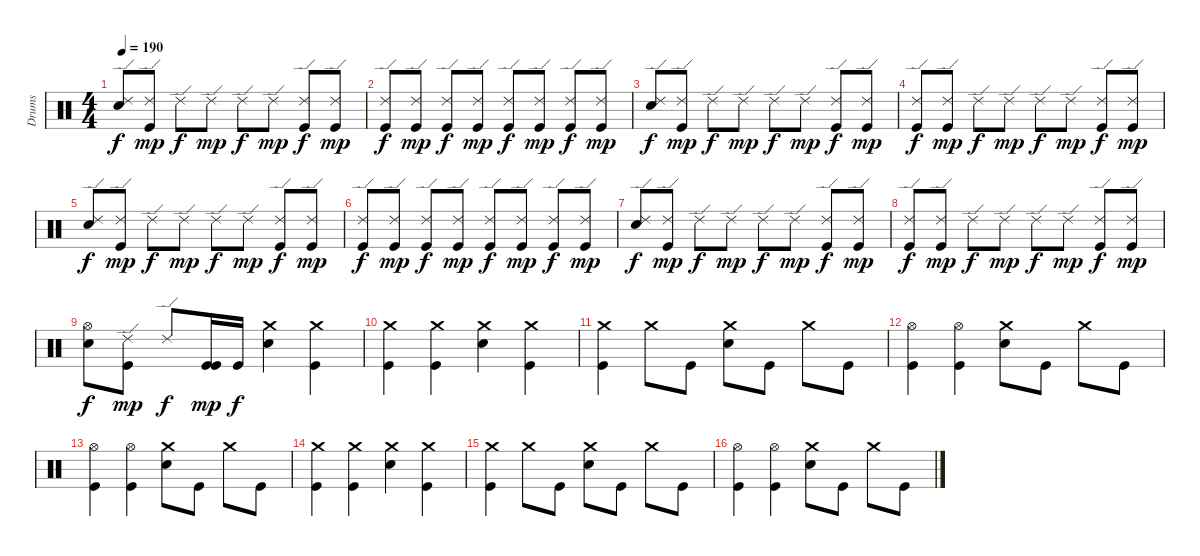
\track ("Drums" "Drums") {instrument percussion}
\staff {score}
\articulation defaults
\ts (4 4)
\tempo 190
\clef neutral
\ks c
("Ride (edge) 2" "Electric Snare (hit)").8{dy f} ("Ride (edge) 2" "Kick (hit)").8{dy mp} "Ride (edge) 2".8{dy f} "Ride (edge) 2".8{dy mp} "Ride (edge) 2".8{dy f} "Ride (edge) 2".8{dy mp} ("Ride (edge) 2" "Kick (hit)").8{dy f} ("Ride (edge) 2" "Kick (hit)").8{dy mp} |
("Ride (edge) 2" "Kick (hit)").8{dy f} ("Ride (edge) 2" "Kick (hit)").8{dy mp} ("Ride (edge) 2" "Kick (hit)").8{dy f} ("Ride (edge) 2" "Kick (hit)").8{dy mp} ("Ride (edge) 2" "Kick (hit)").8{dy f} ("Ride (edge) 2" "Kick (hit)").8{dy mp} ("Ride (edge) 2" "Kick (hit)").8{dy f} ("Ride (edge) 2" "Kick (hit)").8{dy mp} |
("Ride (edge) 2" "Electric Snare (hit)").8{dy f} ("Ride (edge) 2" "Kick (hit)").8{dy mp} "Ride (edge) 2".8{dy f} "Ride (edge) 2".8{dy mp} "Ride (edge) 2".8{dy f} "Ride (edge) 2".8{dy mp} ("Ride (edge) 2" "Kick (hit)").8{dy f} ("Ride (edge) 2" "Kick (hit)").8{dy mp} |
("Ride (edge) 2" "Kick (hit)").8{dy f} ("Ride (edge) 2" "Kick (hit)").8{dy mp} "Ride (edge) 2".8{dy f} "Ride (edge) 2".8{dy mp} "Ride (edge) 2".8{dy f} "Ride (edge) 2".8{dy mp} ("Ride (edge) 2" "Kick (hit)").8{dy f} ("Ride (edge) 2" "Kick (hit)").8{dy mp} |
("Ride (edge) 2" "Electric Snare (hit)").8{dy f} ("Ride (edge) 2" "Kick (hit)").8{dy mp} "Ride (edge) 2".8{dy f} "Ride (edge) 2".8{dy mp} "Ride (edge) 2".8{dy f} "Ride (edge) 2".8{dy mp} ("Ride (edge) 2" "Kick (hit)").8{dy f} ("Ride (edge) 2" "Kick (hit)").8{dy mp} |
("Ride (edge) 2" "Kick (hit)").8{dy f} ("Ride (edge) 2" "Kick (hit)").8{dy mp} ("Ride (edge) 2" "Kick (hit)").8{dy f} ("Ride (edge) 2" "Kick (hit)").8{dy mp} ("Ride (edge) 2" "Kick (hit)").8{dy f} ("Ride (edge) 2" "Kick (hit)").8{dy mp} ("Ride (edge) 2" "Kick (hit)").8{dy f} ("Ride (edge) 2" "Kick (hit)").8{dy mp} |
("Ride (edge) 2" "Electric Snare (hit)").8{dy f} ("Ride (edge) 2" "Kick (hit)").8{dy mp} "Ride (edge) 2".8{dy f} "Ride (edge) 2".8{dy mp} "Ride (edge) 2".8{dy f} "Ride (edge) 2".8{dy mp} ("Ride (edge) 2" "Kick (hit)").8{dy f} ("Ride (edge) 2" "Kick (hit)").8{dy mp} |
("Ride (edge) 2" "Kick (hit)").8{dy f} ("Ride (edge) 2" "Kick (hit)").8{dy mp} "Ride (edge) 2".8{dy f} "Ride (edge) 2".8{dy mp} "Ride (edge) 2".8{dy f} "Ride (edge) 2".8{dy mp} ("Ride (edge) 2" "Kick (hit)").8{dy f} ("Ride (edge) 2" "Kick (hit)").8{dy mp} |
("Hi-Hat (open)" "Electric Snare (hit)").8{dy f} ("Ride (edge) 2" "Kick (hit)").8{dy mp} "Ride (edge) 2".8{dy f} ("Kick (hit)" "Kick (hit)").16{dy mp} "Kick (hit)".16{dy f} ("Crash medium (hit)" "Electric Snare (hit)").4 ("Crash medium (hit)" "Kick (hit)").4 |
("Crash medium (hit)" "Kick (hit)").4 ("Crash medium (hit)" "Kick (hit)").4 ("Crash medium (hit)" "Electric Snare (hit)").4 ("Crash medium (hit)" "Kick (hit)").4 |
("Crash medium (hit)" "Kick (hit)").4 "Crash medium (hit)".8 "Kick (hit)".8 ("Crash medium (hit)" "Electric Snare (hit)").8 "Kick (hit)".8 "Crash medium (hit)".8 "Kick (hit)".8 |
("Hi-Hat (open)" "Kick (hit)").4 ("Hi-Hat (open)" "Kick (hit)").4 ("Crash medium (hit)" "Electric Snare (hit)").8 "Kick (hit)".8 "Crash medium (hit)".8 "Kick (hit)".8 |
("Hi-Hat (open)" "Kick (hit)").4 ("Hi-Hat (open)" "Kick (hit)").4 ("Crash medium (hit)" "Electric Snare (hit)").8 "Kick (hit)".8 "Crash medium (hit)".8 "Kick (hit)".8 |
("Crash medium (hit)" "Kick (hit)").4 ("Crash medium (hit)" "Kick (hit)").4 ("Crash medium (hit)" "Electric Snare (hit)").4 ("Crash medium (hit)" "Kick (hit)").4 |
("Crash medium (hit)" "Kick (hit)").4 "Crash medium (hit)".8 "Kick (hit)".8 ("Crash medium (hit)" "Electric Snare (hit)").8 "Kick (hit)".8 "Crash medium (hit)".8 "Kick (hit)".8 |
("Hi-Hat (open)" "Kick (hit)").4 ("Hi-Hat (open)" "Kick (hit)").4 ("Crash medium (hit)" "Electric Snare (hit)").8 "Kick (hit)".8 "Crash medium (hit)".8 "Kick (hit)".8
